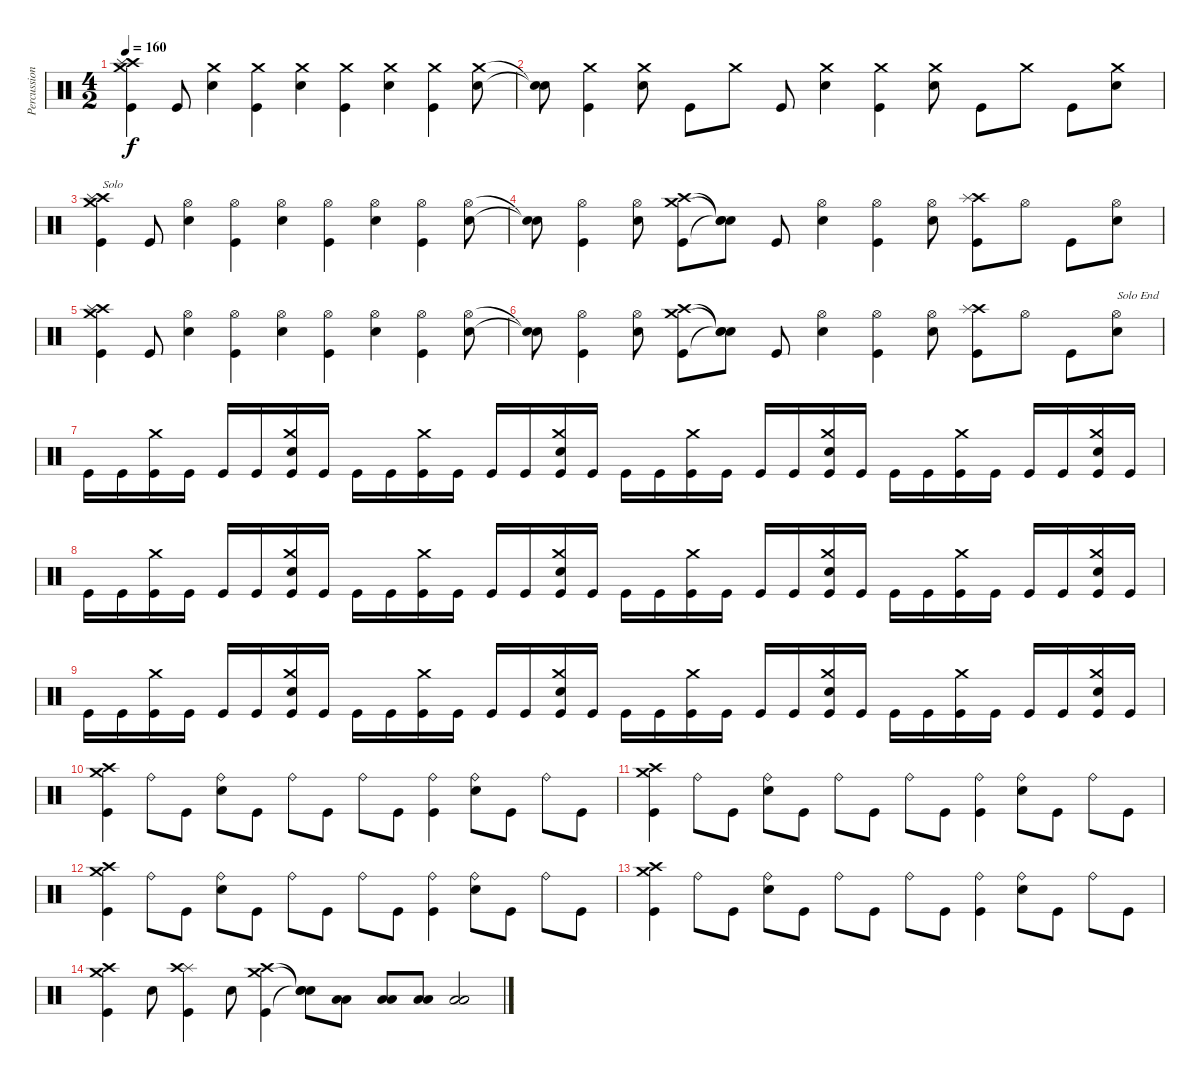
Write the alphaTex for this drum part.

\track ("Percussion" "Percussion") {instrument percussion}
\staff {score}
\articulation defaults
\ts (4 2)
\tempo 160
\clef neutral
\ks c
("Kick (hit)" "Crash medium (hit)" "Crash high (hit)" "Splash (hit)").4{dy f} "Kick (hit)".8 ("Crash medium (hit)" "Electric Snare (hit)").4 ("Kick (hit)" "Crash medium (hit)").4 ("Crash medium (hit)" "Electric Snare (hit)").4 ("Kick (hit)" "Crash medium (hit)").4 ("Crash medium (hit)" "Electric Snare (hit)").4 ("Kick (hit)" "Crash medium (hit)").4 ("Crash medium (hit)" "Electric Snare (hit)").8 |
("Snare (hit)"{t} "Snare (hit)"{t}).8 ("Kick (hit)" "Crash medium (hit)").4 ("Crash medium (hit)" "Electric Snare (hit)").8 "Kick (hit)".8 "Crash medium (hit)".8 "Kick (hit)".8 ("Crash medium (hit)" "Electric Snare (hit)").4 ("Kick (hit)" "Crash medium (hit)").4 ("Crash medium (hit)" "Electric Snare (hit)").8 "Kick (hit)".8 "Crash medium (hit)".8 "Kick (hit)".8 ("Crash medium (hit)" "Electric Snare (hit)").8 |
("Kick (hit)" "Crash medium (hit)" "Crash high (hit)" "Splash (hit)").4{txt "Solo"} "Kick (hit)".8 ("Hi-Hat (open)" "Electric Snare (hit)").4 ("Kick (hit)" "Hi-Hat (open)").4 ("Hi-Hat (open)" "Electric Snare (hit)").4 ("Kick (hit)" "Hi-Hat (open)").4 ("Hi-Hat (open)" "Electric Snare (hit)").4 ("Kick (hit)" "Hi-Hat (open)").4 ("Hi-Hat (open)" "Electric Snare (hit)").8 |
("Snare (hit)"{t} "Snare (hit)"{t}).8 ("Kick (hit)" "Hi-Hat (open)").4 ("Hi-Hat (open)" "Electric Snare (hit)").8 ("Kick (hit)" "Crash medium (hit)" "Crash high (hit)").8 ("Snare (hit)"{t} "Snare (hit)"{t} "Snare (hit)"{t}).8 "Kick (hit)".8 ("Hi-Hat (open)" "Electric Snare (hit)").4 ("Kick (hit)" "Hi-Hat (open)").4 ("Hi-Hat (open)" "Electric Snare (hit)").8 ("Kick (hit)" "Crash high (hit)" "Splash (hit)").8 "Hi-Hat (open)".8 "Kick (hit)".8 ("Hi-Hat (open)" "Electric Snare (hit)").8 |
("Kick (hit)" "Crash medium (hit)" "Crash high (hit)" "Splash (hit)").4 "Kick (hit)".8 ("Hi-Hat (open)" "Electric Snare (hit)").4 ("Kick (hit)" "Hi-Hat (open)").4 ("Hi-Hat (open)" "Electric Snare (hit)").4 ("Kick (hit)" "Hi-Hat (open)").4 ("Hi-Hat (open)" "Electric Snare (hit)").4 ("Kick (hit)" "Hi-Hat (open)").4 ("Hi-Hat (open)" "Electric Snare (hit)").8 |
("Snare (hit)"{t} "Snare (hit)"{t}).8 ("Kick (hit)" "Hi-Hat (open)").4 ("Hi-Hat (open)" "Electric Snare (hit)").8 ("Kick (hit)" "Crash medium (hit)" "Crash high (hit)").8 ("Snare (hit)"{t} "Snare (hit)"{t} "Snare (hit)"{t}).8 "Kick (hit)".8 ("Hi-Hat (open)" "Electric Snare (hit)").4 ("Kick (hit)" "Hi-Hat (open)").4 ("Hi-Hat (open)" "Electric Snare (hit)").8 ("Kick (hit)" "Crash high (hit)" "Splash (hit)").8 "Hi-Hat (open)".8 "Kick (hit)".8 ("Hi-Hat (open)" "Electric Snare (hit)").8{txt "Solo End"} |
"Kick (hit)".16 "Kick (hit)".16 ("Kick (hit)" "Crash medium (hit)").16 "Kick (hit)".16 "Kick (hit)".16 "Kick (hit)".16 ("Kick (hit)" "Crash medium (hit)" "Electric Snare (hit)").16 "Kick (hit)".16 "Kick (hit)".16 "Kick (hit)".16 ("Kick (hit)" "Crash medium (hit)").16 "Kick (hit)".16 "Kick (hit)".16 "Kick (hit)".16 ("Kick (hit)" "Crash medium (hit)" "Electric Snare (hit)").16 "Kick (hit)".16 "Kick (hit)".16 "Kick (hit)".16 ("Kick (hit)" "Crash medium (hit)").16 "Kick (hit)".16 "Kick (hit)".16 "Kick (hit)".16 ("Kick (hit)" "Crash medium (hit)" "Electric Snare (hit)").16 "Kick (hit)".16 "Kick (hit)".16 "Kick (hit)".16 ("Kick (hit)" "Crash medium (hit)").16 "Kick (hit)".16 "Kick (hit)".16 "Kick (hit)".16 ("Kick (hit)" "Crash medium (hit)" "Electric Snare (hit)").16 "Kick (hit)".16 |
"Kick (hit)".16 "Kick (hit)".16 ("Kick (hit)" "Crash medium (hit)").16 "Kick (hit)".16 "Kick (hit)".16 "Kick (hit)".16 ("Kick (hit)" "Crash medium (hit)" "Electric Snare (hit)").16 "Kick (hit)".16 "Kick (hit)".16 "Kick (hit)".16 ("Kick (hit)" "Crash medium (hit)").16 "Kick (hit)".16 "Kick (hit)".16 "Kick (hit)".16 ("Kick (hit)" "Crash medium (hit)" "Electric Snare (hit)").16 "Kick (hit)".16 "Kick (hit)".16 "Kick (hit)".16 ("Kick (hit)" "Crash medium (hit)").16 "Kick (hit)".16 "Kick (hit)".16 "Kick (hit)".16 ("Kick (hit)" "Crash medium (hit)" "Electric Snare (hit)").16 "Kick (hit)".16 "Kick (hit)".16 "Kick (hit)".16 ("Kick (hit)" "Crash medium (hit)").16 "Kick (hit)".16 "Kick (hit)".16 "Kick (hit)".16 ("Kick (hit)" "Crash medium (hit)" "Electric Snare (hit)").16 "Kick (hit)".16 |
"Kick (hit)".16 "Kick (hit)".16 ("Kick (hit)" "Crash medium (hit)").16 "Kick (hit)".16 "Kick (hit)".16 "Kick (hit)".16 ("Kick (hit)" "Crash medium (hit)" "Electric Snare (hit)").16 "Kick (hit)".16 "Kick (hit)".16 "Kick (hit)".16 ("Kick (hit)" "Crash medium (hit)").16 "Kick (hit)".16 "Kick (hit)".16 "Kick (hit)".16 ("Kick (hit)" "Crash medium (hit)" "Electric Snare (hit)").16 "Kick (hit)".16 "Kick (hit)".16 "Kick (hit)".16 ("Kick (hit)" "Crash medium (hit)").16 "Kick (hit)".16 "Kick (hit)".16 "Kick (hit)".16 ("Kick (hit)" "Crash medium (hit)" "Electric Snare (hit)").16 "Kick (hit)".16 "Kick (hit)".16 "Kick (hit)".16 ("Kick (hit)" "Crash medium (hit)").16 "Kick (hit)".16 "Kick (hit)".16 "Kick (hit)".16 ("Kick (hit)" "Crash medium (hit)" "Electric Snare (hit)").16 "Kick (hit)".16 |
("Kick (hit)" "Crash high (hit)" "Crash medium (hit)").4 "Ride (bell)".8 "Kick (hit)".8 ("Electric Snare (hit)" "Ride (bell)").8 "Kick (hit)".8 "Ride (bell)".8 "Kick (hit)".8 "Ride (bell)".8 "Kick (hit)".8 ("Kick (hit)" "Ride (bell)").4 ("Electric Snare (hit)" "Ride (bell)").8 "Kick (hit)".8 "Ride (bell)".8 "Kick (hit)".8 |
("Kick (hit)" "Crash high (hit)" "Crash medium (hit)").4 "Ride (bell)".8 "Kick (hit)".8 ("Electric Snare (hit)" "Ride (bell)").8 "Kick (hit)".8 "Ride (bell)".8 "Kick (hit)".8 "Ride (bell)".8 "Kick (hit)".8 ("Kick (hit)" "Ride (bell)").4 ("Electric Snare (hit)" "Ride (bell)").8 "Kick (hit)".8 "Ride (bell)".8 "Kick (hit)".8 |
("Kick (hit)" "Crash high (hit)" "Crash medium (hit)").4 "Ride (bell)".8 "Kick (hit)".8 ("Electric Snare (hit)" "Ride (bell)").8 "Kick (hit)".8 "Ride (bell)".8 "Kick (hit)".8 "Ride (bell)".8 "Kick (hit)".8 ("Kick (hit)" "Ride (bell)").4 ("Electric Snare (hit)" "Ride (bell)").8 "Kick (hit)".8 "Ride (bell)".8 "Kick (hit)".8 |
("Kick (hit)" "Crash high (hit)" "Crash medium (hit)").4 "Ride (bell)".8 "Kick (hit)".8 ("Electric Snare (hit)" "Ride (bell)").8 "Kick (hit)".8 "Ride (bell)".8 "Kick (hit)".8 "Ride (bell)".8 "Kick (hit)".8 ("Kick (hit)" "Ride (bell)").4 ("Electric Snare (hit)" "Ride (bell)").8 "Kick (hit)".8 "Ride (bell)".8 "Kick (hit)".8 |
("Kick (hit)" "Crash medium (hit)" "Crash high (hit)").4 "Electric Snare (hit)".8 ("Kick (hit)" "Splash (hit)" "Crash high (hit)").4 "Electric Snare (hit)".8 ("Kick (hit)" "Crash medium (hit)" "Crash high (hit)").4 ("Snare (hit)"{t} "Snare (hit)"{t} "Snare (hit)"{t}).8 ("Low Floor Tom (hit)" "Low Tom (hit)").8 ("Low Floor Tom (hit)" "Low Tom (hit)").8 ("Low Floor Tom (hit)" "Low Tom (hit)").8 ("Low Floor Tom (hit)" "Low Tom (hit)").2
